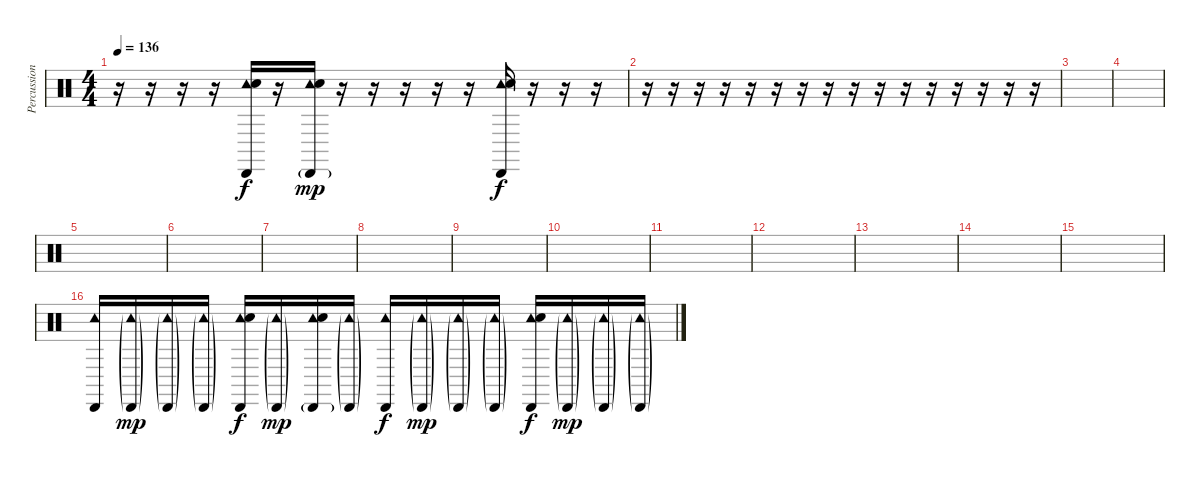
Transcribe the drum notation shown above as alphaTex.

\track ("Percussion (2)" "Percussion") {instrument percussion}
\staff {score}
\articulation defaults
\ts (4 4)
\tempo 136
\clef neutral
\ks c
r.16{dy f} r.16 r.16 r.16 ("Cabasa (hit)" "Tambourine (hit)" "Hand Clap (hit)").16 r.16 ("Cabasa (hit)"{g} "Tambourine (hit)" "Hand Clap (hit)").16{dy mp} r.16 r.16 r.16 r.16 r.16 ("Cabasa (hit)" "Tambourine (hit)" "Hand Clap (hit)").16{dy f} r.16 r.16 r.16 |
r.16 r.16 r.16 r.16 r.16 r.16 r.16 r.16 r.16 r.16 r.16 r.16 r.16 r.16 r.16 r.16 |
|
|
|
|
|
|
|
|
|
|
|
|
|
("Cabasa (hit)" "Tambourine (hit)").16 ("Cabasa (hit)"{g} "Tambourine (hit)"{g}).16{dy mp} ("Cabasa (hit)"{g} "Tambourine (hit)"{g}).16 ("Cabasa (hit)"{g} "Tambourine (hit)"{g}).16 ("Cabasa (hit)" "Tambourine (hit)" "Hand Clap (hit)").16{dy f} ("Cabasa (hit)"{g} "Tambourine (hit)"{g}).16{dy mp} ("Cabasa (hit)"{g} "Tambourine (hit)" "Hand Clap (hit)").16 ("Cabasa (hit)"{g} "Tambourine (hit)"{g}).16 ("Cabasa (hit)" "Tambourine (hit)").16{dy f} ("Cabasa (hit)"{g} "Tambourine (hit)"{g}).16{dy mp} ("Cabasa (hit)"{g} "Tambourine (hit)"{g}).16 ("Cabasa (hit)"{g} "Tambourine (hit)"{g}).16 ("Cabasa (hit)" "Tambourine (hit)" "Hand Clap (hit)").16{dy f} ("Cabasa (hit)"{g} "Tambourine (hit)"{g}).16{dy mp} ("Cabasa (hit)"{g} "Tambourine (hit)"{g}).16 ("Cabasa (hit)"{g} "Tambourine (hit)"{g}).16
